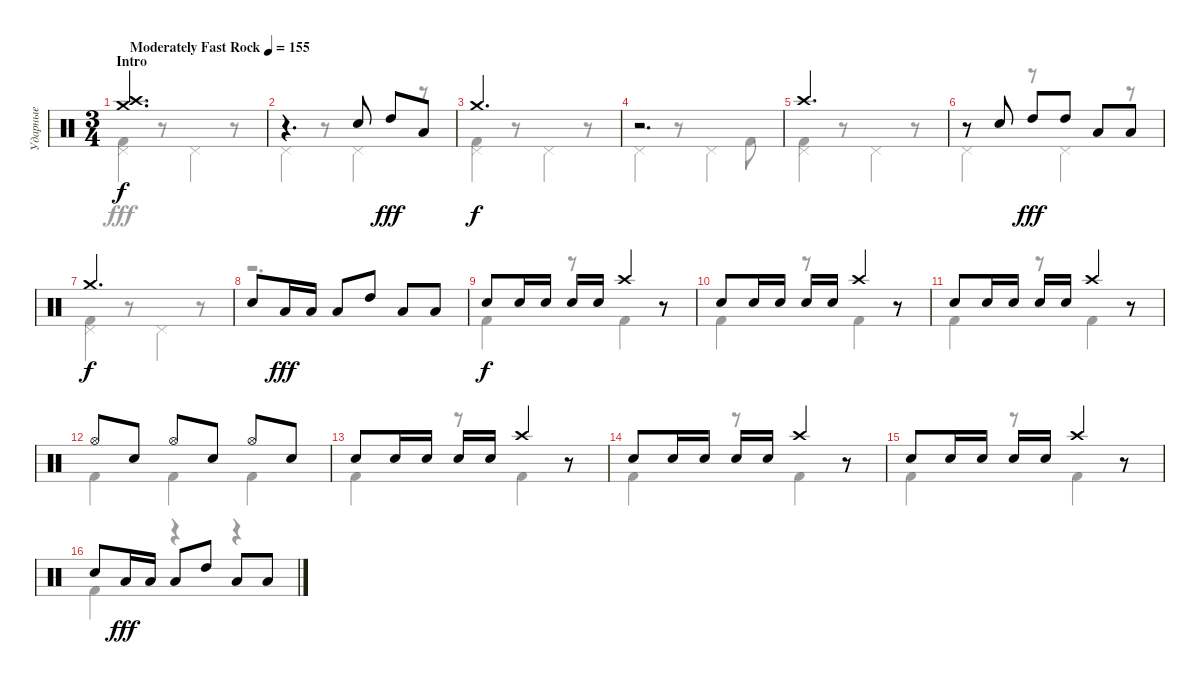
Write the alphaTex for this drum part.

\track ("Ударные" "Ударные") {instrument percussion}
\staff {score}
\articulation defaults
\voice
\ts (3 4)
\section ("" "Intro")
\tempo (155 "Moderately Fast Rock")
\clef neutral
\ks c
("Crash high (hit)" "Crash medium (hit)").2{d dy f} |
r.4{d} "Snare (hit) 2".8 "High Tom (hit)".8{dy fff} "Low Tom (hit)".8 |
"Crash medium (hit)".2{d dy f} |
r.2{d} |
"Crash high (hit)".2{d} |
r.8 "Snare (hit) 2".8 "High Tom (hit)".8{dy fff} "High Tom (hit)".8 "Low Tom (hit)".8 "Low Floor Tom (hit)".8 |
"Crash medium (hit)".2{d dy f} |
"Snare (hit) 2".8 "Low Floor Tom (hit)".16{dy fff} "Low Floor Tom (hit)".16 "Low Floor Tom (hit)".8 "High Tom (hit)".8 "Low Tom (hit)".8 "Low Floor Tom (hit)".8 |
"Snare (hit) 2".8{dy f} "Snare (hit) 2".16 "Snare (hit) 2".16 "Snare (hit) 2".16 "Snare (hit) 2".16 "Crash high (hit)".4 r.8 |
"Snare (hit) 2".8 "Snare (hit) 2".16 "Snare (hit) 2".16 "Snare (hit) 2".16 "Snare (hit) 2".16 "Crash high (hit)".4 r.8 |
"Snare (hit) 2".8 "Snare (hit) 2".16 "Snare (hit) 2".16 "Snare (hit) 2".16 "Snare (hit) 2".16 "Crash high (hit)".4 r.8 |
"Hi-Hat (open)".8 "Electric Snare (hit)".8 "Hi-Hat (open)".8 "Electric Snare (hit)".8 "Hi-Hat (open)".8 "Electric Snare (hit)".8 |
"Snare (hit) 2".8 "Snare (hit) 2".16 "Snare (hit) 2".16 "Snare (hit) 2".16 "Snare (hit) 2".16 "Crash high (hit)".4 r.8 |
"Snare (hit) 2".8 "Snare (hit) 2".16 "Snare (hit) 2".16 "Snare (hit) 2".16 "Snare (hit) 2".16 "Crash high (hit)".4 r.8 |
"Snare (hit) 2".8 "Snare (hit) 2".16 "Snare (hit) 2".16 "Snare (hit) 2".16 "Snare (hit) 2".16 "Crash high (hit)".4 r.8 |
"Electric Snare (hit)".8 "Low Floor Tom (hit)".16{dy fff} "Low Floor Tom (hit)".16 "Low Floor Tom (hit)".8 "High Tom (hit)".8 "Low Tom (hit)".8 "Low Floor Tom (hit)".8
\voice
\clef neutral
\ottava regular
\simile none
\ks c
("Pedal Hi-Hat (hit)" "Kick (hit) 2").4{dy fff} r.8 "Pedal Hi-Hat (hit)".4 r.8 |
"Pedal Hi-Hat (hit)".4 r.8 "Pedal Hi-Hat (hit)".4 r.8 |
("Pedal Hi-Hat (hit)" "Kick (hit) 2").4 r.8 "Pedal Hi-Hat (hit)".4 r.8 |
"Pedal Hi-Hat (hit)".4 r.8 "Pedal Hi-Hat (hit)".4 "Kick (hit) 2".8 |
("Pedal Hi-Hat (hit)" "Kick (hit) 2").4 r.8 "Pedal Hi-Hat (hit)".4 r.8 |
"Pedal Hi-Hat (hit)".4 r.8 "Pedal Hi-Hat (hit)".4 r.8 |
("Pedal Hi-Hat (hit)" "Kick (hit) 2").4 r.8 "Pedal Hi-Hat (hit)".4 r.8 |
r.2{d} |
"Kick (hit) 2".4 r.8 "Kick (hit) 2".4 r.8 |
"Kick (hit) 2".4 r.8 "Kick (hit) 2".4 r.8 |
"Kick (hit) 2".4 r.8 "Kick (hit) 2".4 r.8 |
"Kick (hit) 2".4 "Kick (hit) 2".4 "Kick (hit) 2".4 |
"Kick (hit) 2".4 r.8 "Kick (hit) 2".4 r.8 |
"Kick (hit) 2".4 r.8 "Kick (hit) 2".4 r.8 |
"Kick (hit) 2".4 r.8 "Kick (hit) 2".4 r.8 |
"Kick (hit) 2".4 r.4 r.4
